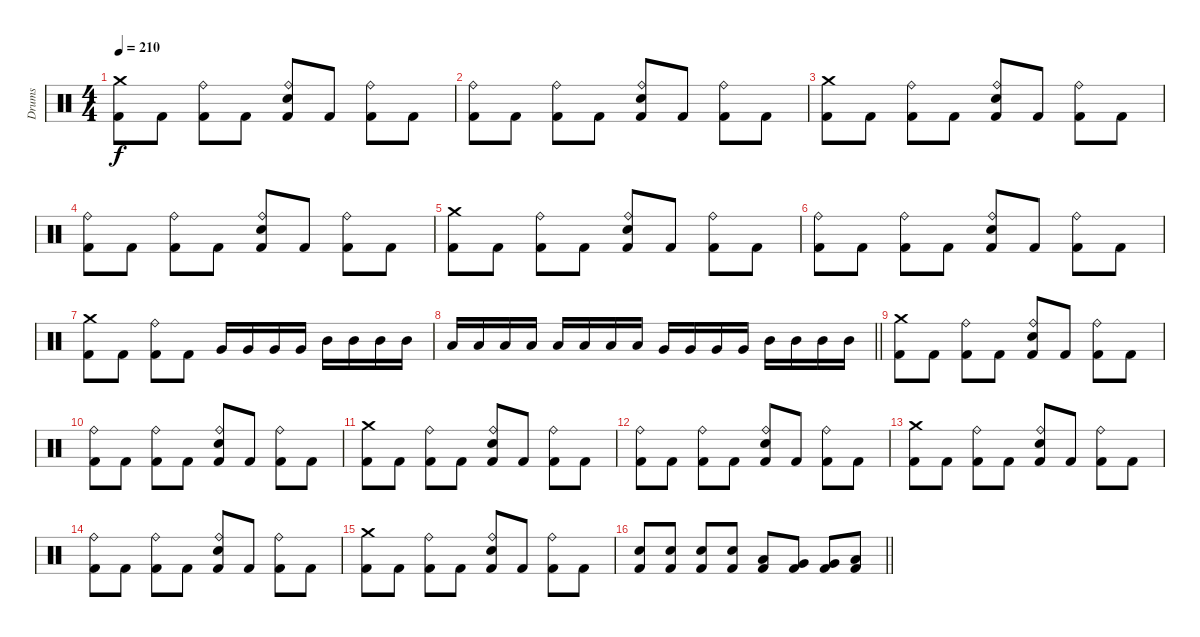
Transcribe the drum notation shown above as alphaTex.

\track ("Drums" "Drums") {instrument percussion}
\staff {score}
\articulation defaults
\ts (4 4)
\tempo 210
\clef neutral
\ks c
("Crash medium (hit)" "Kick (hit) 2").8{dy f} "Kick (hit) 2".8 ("Ride (bell)" "Kick (hit) 2").8 "Kick (hit) 2".8 ("Ride (bell)" "Electric Snare (hit)" "Kick (hit) 2").8 "Kick (hit) 2".8 ("Ride (bell)" "Kick (hit) 2").8 "Kick (hit) 2".8 |
("Ride (bell)" "Kick (hit) 2").8 "Kick (hit) 2".8 ("Ride (bell)" "Kick (hit) 2").8 "Kick (hit) 2".8 ("Ride (bell)" "Electric Snare (hit)" "Kick (hit) 2").8 "Kick (hit) 2".8 ("Ride (bell)" "Kick (hit) 2").8 "Kick (hit) 2".8 |
("Crash medium (hit)" "Kick (hit) 2").8 "Kick (hit) 2".8 ("Ride (bell)" "Kick (hit) 2").8 "Kick (hit) 2".8 ("Ride (bell)" "Electric Snare (hit)" "Kick (hit) 2").8 "Kick (hit) 2".8 ("Ride (bell)" "Kick (hit) 2").8 "Kick (hit) 2".8 |
("Ride (bell)" "Kick (hit) 2").8 "Kick (hit) 2".8 ("Ride (bell)" "Kick (hit) 2").8 "Kick (hit) 2".8 ("Ride (bell)" "Electric Snare (hit)" "Kick (hit) 2").8 "Kick (hit) 2".8 ("Ride (bell)" "Kick (hit) 2").8 "Kick (hit) 2".8 |
("Crash medium (hit)" "Kick (hit) 2").8 "Kick (hit) 2".8 ("Ride (bell)" "Kick (hit) 2").8 "Kick (hit) 2".8 ("Ride (bell)" "Electric Snare (hit)" "Kick (hit) 2").8 "Kick (hit) 2".8 ("Ride (bell)" "Kick (hit) 2").8 "Kick (hit) 2".8 |
("Ride (bell)" "Kick (hit) 2").8 "Kick (hit) 2".8 ("Ride (bell)" "Kick (hit) 2").8 "Kick (hit) 2".8 ("Ride (bell)" "Electric Snare (hit)" "Kick (hit) 2").8 "Kick (hit) 2".8 ("Ride (bell)" "Kick (hit) 2").8 "Kick (hit) 2".8 |
("Crash medium (hit)" "Kick (hit) 2").8 "Kick (hit) 2".8 ("Ride (bell)" "Kick (hit) 2").8 "Kick (hit) 2".8 "Very Low Tom (hit)".16 "Very Low Tom (hit)".16 "Very Low Tom (hit)".16 "Very Low Tom (hit)".16 "Mid Tom (hit)".16 "Mid Tom (hit)".16 "Mid Tom (hit)".16 "Mid Tom (hit)".16 |
\barLineRight lightlight "Low Tom (hit)".16 "Low Tom (hit)".16 "Low Tom (hit)".16 "Low Tom (hit)".16 "Low Floor Tom (hit)".16 "Low Floor Tom (hit)".16 "Low Floor Tom (hit)".16 "Low Floor Tom (hit)".16 "Very Low Tom (hit)".16 "Very Low Tom (hit)".16 "Very Low Tom (hit)".16 "Very Low Tom (hit)".16 "Mid Tom (hit)".16 "Mid Tom (hit)".16 "Mid Tom (hit)".16 "Mid Tom (hit)".16
|
("Crash medium (hit)" "Kick (hit) 2").8 "Kick (hit) 2".8 ("Ride (bell)" "Kick (hit) 2").8 "Kick (hit) 2".8 ("Ride (bell)" "Electric Snare (hit)" "Kick (hit) 2").8 "Kick (hit) 2".8 ("Ride (bell)" "Kick (hit) 2").8 "Kick (hit) 2".8 |
("Ride (bell)" "Kick (hit) 2").8 "Kick (hit) 2".8 ("Ride (bell)" "Kick (hit) 2").8 "Kick (hit) 2".8 ("Ride (bell)" "Electric Snare (hit)" "Kick (hit) 2").8 "Kick (hit) 2".8 ("Ride (bell)" "Kick (hit) 2").8 "Kick (hit) 2".8 |
("Crash medium (hit)" "Kick (hit) 2").8 "Kick (hit) 2".8 ("Ride (bell)" "Kick (hit) 2").8 "Kick (hit) 2".8 ("Ride (bell)" "Electric Snare (hit)" "Kick (hit) 2").8 "Kick (hit) 2".8 ("Ride (bell)" "Kick (hit) 2").8 "Kick (hit) 2".8 |
("Ride (bell)" "Kick (hit) 2").8 "Kick (hit) 2".8 ("Ride (bell)" "Kick (hit) 2").8 "Kick (hit) 2".8 ("Ride (bell)" "Electric Snare (hit)" "Kick (hit) 2").8 "Kick (hit) 2".8 ("Ride (bell)" "Kick (hit) 2").8 "Kick (hit) 2".8 |
("Crash medium (hit)" "Kick (hit) 2").8 "Kick (hit) 2".8 ("Ride (bell)" "Kick (hit) 2").8 "Kick (hit) 2".8 ("Ride (bell)" "Electric Snare (hit)" "Kick (hit) 2").8 "Kick (hit) 2".8 ("Ride (bell)" "Kick (hit) 2").8 "Kick (hit) 2".8 |
("Ride (bell)" "Kick (hit) 2").8 "Kick (hit) 2".8 ("Ride (bell)" "Kick (hit) 2").8 "Kick (hit) 2".8 ("Ride (bell)" "Electric Snare (hit)" "Kick (hit) 2").8 "Kick (hit) 2".8 ("Ride (bell)" "Kick (hit) 2").8 "Kick (hit) 2".8 |
("Crash medium (hit)" "Kick (hit) 2").8 "Kick (hit) 2".8 ("Ride (bell)" "Kick (hit) 2").8 "Kick (hit) 2".8 ("Ride (bell)" "Electric Snare (hit)" "Kick (hit) 2").8 "Kick (hit) 2".8 ("Ride (bell)" "Kick (hit) 2").8 "Kick (hit) 2".8 |
\barLineRight lightlight
("Electric Snare (hit)" "Kick (hit) 2").8 ("Electric Snare (hit)" "Kick (hit) 2").8 ("Electric Snare (hit)" "Kick (hit) 2").8 ("Electric Snare (hit)" "Kick (hit) 2").8 ("Low Tom (hit)" "Kick (hit) 2").8 ("Very Low Tom (hit)" "Kick (hit) 2").8 ("Very Low Tom (hit)" "Kick (hit) 2").8 ("Low Floor Tom (hit)" "Kick (hit) 2").8
